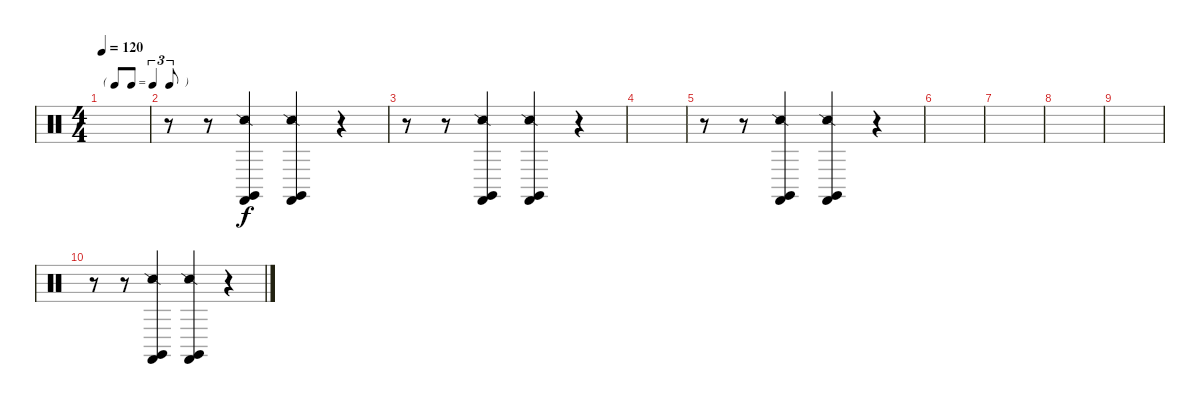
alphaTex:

\track "" {instrument percussion}
\staff {score}
\articulation defaults
\ts (4 4)
\tf triplet8th
\tempo 120
\clef neutral
\ks c
|
r.8 r.8 ("Snare (side stick) 2" "Castanets (hit)" "Claves (hit)").4 ("Snare (side stick) 2" "Castanets (hit)" "Claves (hit)").4 r.4 |
r.8 r.8 ("Snare (side stick) 2" "Castanets (hit)" "Claves (hit)").4 ("Snare (side stick) 2" "Castanets (hit)" "Claves (hit)").4 r.4 |
|
r.8 r.8 ("Snare (side stick) 2" "Castanets (hit)" "Claves (hit)").4 ("Snare (side stick) 2" "Castanets (hit)" "Claves (hit)").4 r.4 |
|
|
|
|
r.8 r.8 ("Snare (side stick) 2" "Castanets (hit)" "Claves (hit)").4 ("Snare (side stick) 2" "Castanets (hit)" "Claves (hit)").4 r.4
